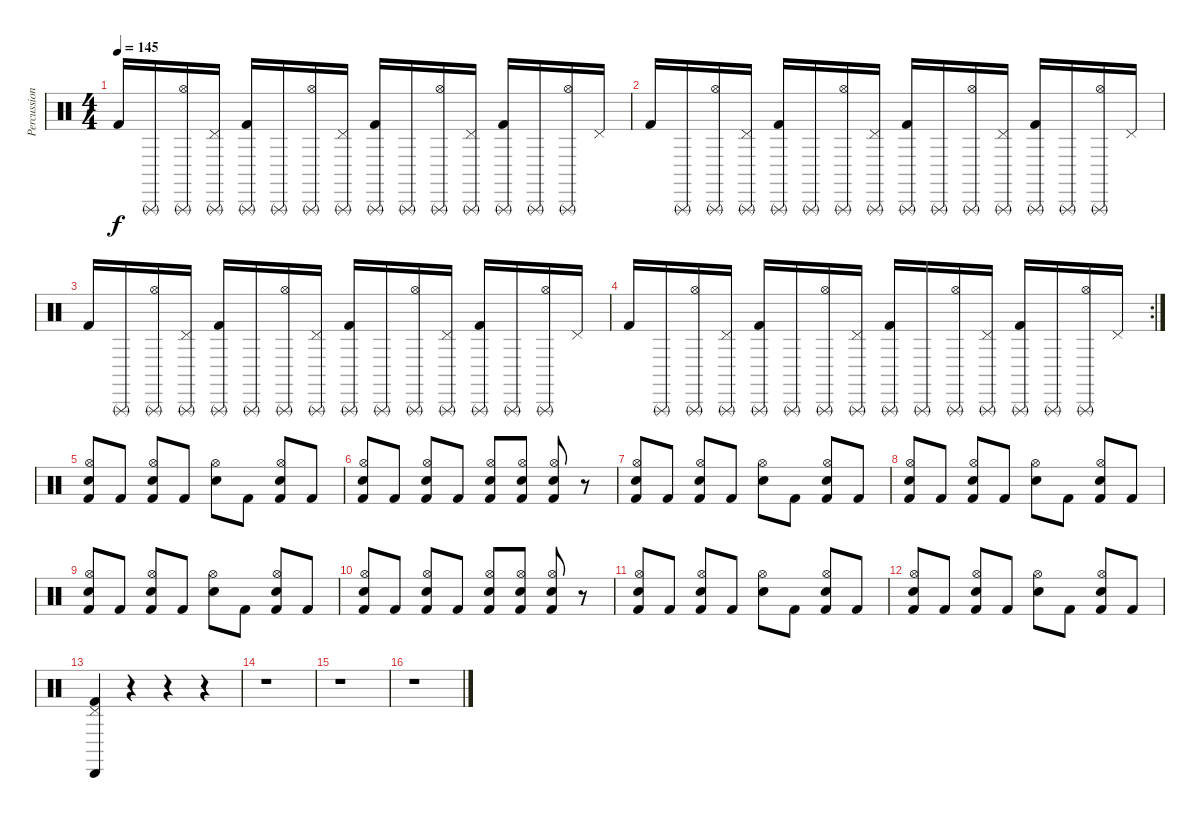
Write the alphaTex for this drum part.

\track ("Percussion" "Percussion") {instrument percussion}
\staff {score}
\articulation defaults
\ts (4 4)
\tempo 145
\clef neutral
\ks c "Kick (hit) 2".16{dy f} "Triangle (rnute)".16
("Triangle (rnute)" "Hi-Hat (open)").16 ("Triangle (rnute)" "Pedal Hi-Hat (hit)").16 ("Triangle (rnute)" "Kick (hit) 2").16 "Triangle (rnute)".16 ("Triangle (rnute)" "Hi-Hat (open)").16 ("Triangle (rnute)" "Pedal Hi-Hat (hit)").16 ("Triangle (rnute)" "Kick (hit) 2").16 "Triangle (rnute)".16 ("Triangle (rnute)" "Hi-Hat (open)").16 ("Triangle (rnute)" "Pedal Hi-Hat (hit)").16 ("Triangle (rnute)" "Kick (hit) 2").16 "Triangle (rnute)".16 ("Triangle (rnute)" "Hi-Hat (open)").16 "Pedal Hi-Hat (hit)".16 |
"Kick (hit) 2".16 "Triangle (rnute)".16 ("Triangle (rnute)" "Hi-Hat (open)").16 ("Triangle (rnute)" "Pedal Hi-Hat (hit)").16 ("Triangle (rnute)" "Kick (hit) 2").16 "Triangle (rnute)".16 ("Triangle (rnute)" "Hi-Hat (open)").16 ("Triangle (rnute)" "Pedal Hi-Hat (hit)").16 ("Triangle (rnute)" "Kick (hit) 2").16 "Triangle (rnute)".16 ("Triangle (rnute)" "Hi-Hat (open)").16 ("Triangle (rnute)" "Pedal Hi-Hat (hit)").16 ("Triangle (rnute)" "Kick (hit) 2").16 "Triangle (rnute)".16 ("Triangle (rnute)" "Hi-Hat (open)").16 "Pedal Hi-Hat (hit)".16 |
"Kick (hit) 2".16 "Triangle (rnute)".16 ("Triangle (rnute)" "Hi-Hat (open)").16 ("Triangle (rnute)" "Pedal Hi-Hat (hit)").16 ("Triangle (rnute)" "Kick (hit) 2").16 "Triangle (rnute)".16 ("Triangle (rnute)" "Hi-Hat (open)").16 ("Triangle (rnute)" "Pedal Hi-Hat (hit)").16 ("Triangle (rnute)" "Kick (hit) 2").16 "Triangle (rnute)".16 ("Triangle (rnute)" "Hi-Hat (open)").16 ("Triangle (rnute)" "Pedal Hi-Hat (hit)").16 ("Triangle (rnute)" "Kick (hit) 2").16 "Triangle (rnute)".16 ("Triangle (rnute)" "Hi-Hat (open)").16 "Pedal Hi-Hat (hit)".16 |
\rc 2 "Kick (hit) 2".16 "Triangle (rnute)".16
("Triangle (rnute)" "Hi-Hat (open)").16 ("Triangle (rnute)" "Pedal Hi-Hat (hit)").16 ("Triangle (rnute)" "Kick (hit) 2").16 "Triangle (rnute)".16 ("Triangle (rnute)" "Hi-Hat (open)").16 ("Triangle (rnute)" "Pedal Hi-Hat (hit)").16 ("Triangle (rnute)" "Kick (hit) 2").16 "Triangle (rnute)".16 ("Triangle (rnute)" "Hi-Hat (open)").16 ("Triangle (rnute)" "Pedal Hi-Hat (hit)").16 ("Triangle (rnute)" "Kick (hit) 2").16 "Triangle (rnute)".16 ("Triangle (rnute)" "Hi-Hat (open)").16 "Pedal Hi-Hat (hit)".16 |
("Hi-Hat (open)" "Electric Snare (hit)" "Kick (hit) 2").8 "Kick (hit) 2".8 ("Hi-Hat (open)" "Electric Snare (hit)" "Kick (hit) 2").8 "Kick (hit) 2".8 ("Hi-Hat (open)" "Electric Snare (hit)").8 "Kick (hit) 2".8 ("Hi-Hat (open)" "Electric Snare (hit)" "Kick (hit) 2").8 "Kick (hit) 2".8 |
("Hi-Hat (open)" "Electric Snare (hit)" "Kick (hit) 2").8 "Kick (hit) 2".8 ("Hi-Hat (open)" "Electric Snare (hit)" "Kick (hit) 2").8 "Kick (hit) 2".8 ("Hi-Hat (open)" "Electric Snare (hit)" "Kick (hit) 2").8 ("Hi-Hat (open)" "Electric Snare (hit)" "Kick (hit) 2").8 ("Hi-Hat (open)" "Electric Snare (hit)" "Kick (hit) 2").8 r.8 |
("Hi-Hat (open)" "Electric Snare (hit)" "Kick (hit) 2").8 "Kick (hit) 2".8 ("Hi-Hat (open)" "Electric Snare (hit)" "Kick (hit) 2").8 "Kick (hit) 2".8 ("Hi-Hat (open)" "Electric Snare (hit)").8 "Kick (hit) 2".8 ("Hi-Hat (open)" "Electric Snare (hit)" "Kick (hit) 2").8 "Kick (hit) 2".8 |
("Hi-Hat (open)" "Electric Snare (hit)" "Kick (hit) 2").8 "Kick (hit) 2".8 ("Hi-Hat (open)" "Electric Snare (hit)" "Kick (hit) 2").8 "Kick (hit) 2".8 ("Hi-Hat (open)" "Electric Snare (hit)").8 "Kick (hit) 2".8 ("Hi-Hat (open)" "Electric Snare (hit)" "Kick (hit) 2").8 "Kick (hit) 2".8 |
("Hi-Hat (open)" "Electric Snare (hit)" "Kick (hit) 2").8 "Kick (hit) 2".8 ("Hi-Hat (open)" "Electric Snare (hit)" "Kick (hit) 2").8 "Kick (hit) 2".8 ("Hi-Hat (open)" "Electric Snare (hit)").8 "Kick (hit) 2".8 ("Hi-Hat (open)" "Electric Snare (hit)" "Kick (hit) 2").8 "Kick (hit) 2".8 |
("Hi-Hat (open)" "Electric Snare (hit)" "Kick (hit) 2").8 "Kick (hit) 2".8 ("Hi-Hat (open)" "Electric Snare (hit)" "Kick (hit) 2").8 "Kick (hit) 2".8 ("Hi-Hat (open)" "Electric Snare (hit)" "Kick (hit) 2").8 ("Hi-Hat (open)" "Electric Snare (hit)" "Kick (hit) 2").8 ("Hi-Hat (open)" "Electric Snare (hit)" "Kick (hit) 2").8 r.8 |
("Hi-Hat (open)" "Electric Snare (hit)" "Kick (hit) 2").8 "Kick (hit) 2".8 ("Hi-Hat (open)" "Electric Snare (hit)" "Kick (hit) 2").8 "Kick (hit) 2".8 ("Hi-Hat (open)" "Electric Snare (hit)").8 "Kick (hit) 2".8 ("Hi-Hat (open)" "Electric Snare (hit)" "Kick (hit) 2").8 "Kick (hit) 2".8 |
("Hi-Hat (open)" "Electric Snare (hit)" "Kick (hit) 2").8 "Kick (hit) 2".8 ("Hi-Hat (open)" "Electric Snare (hit)" "Kick (hit) 2").8 "Kick (hit) 2".8 ("Hi-Hat (open)" "Electric Snare (hit)").8 "Kick (hit) 2".8 ("Hi-Hat (open)" "Electric Snare (hit)" "Kick (hit) 2").8 "Kick (hit) 2".8 |
("Pedal Hi-Hat (hit)" "Cabasa (hit)" "Kick (hit) 2").4 r.4 r.4 r.4 |
r.1 |
r.1 |
r.1
